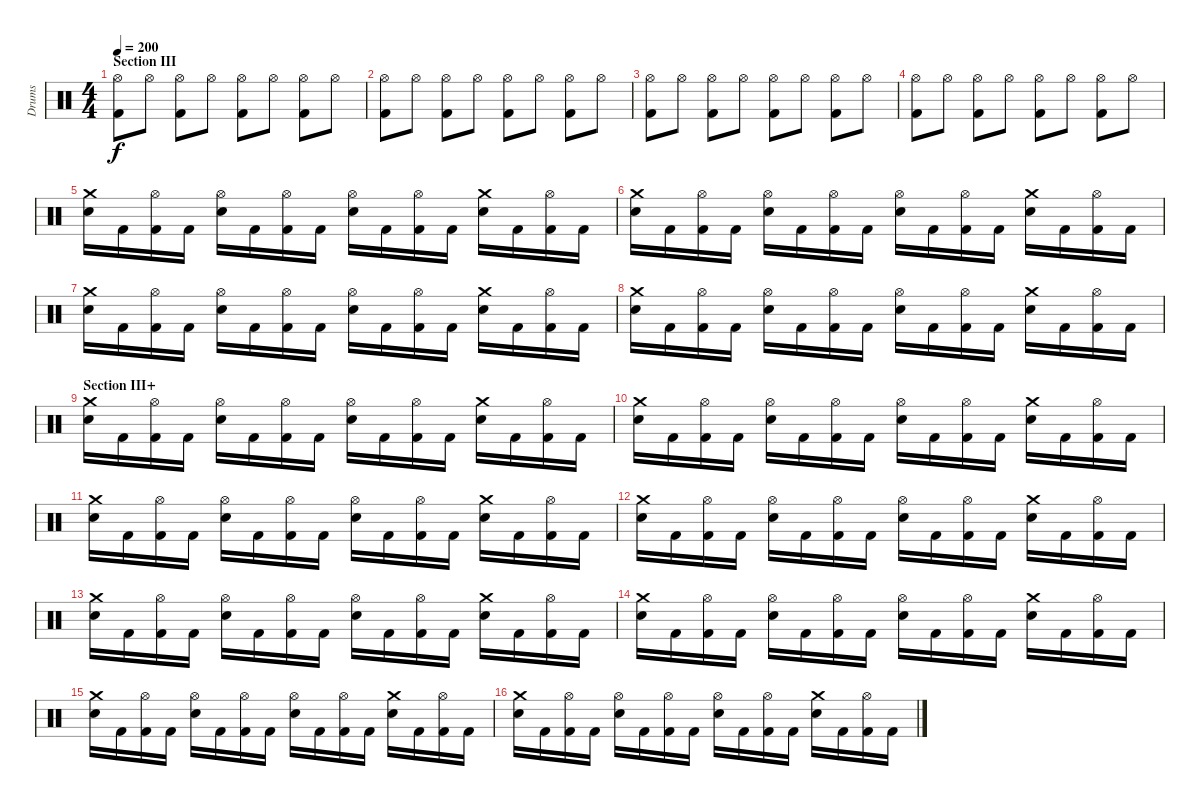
\track ("Drums" "Drums") {instrument percussion}
\staff {score}
\articulation defaults
\ts (4 4)
\section ("" "Section III")
\tempo 200
\clef neutral
\ks c
("Hi-Hat (open)" "Kick (hit) 2").8{dy f} "Hi-Hat (open)".8 ("Hi-Hat (open)" "Kick (hit) 2").8 "Hi-Hat (open)".8 ("Hi-Hat (open)" "Kick (hit) 2").8 "Hi-Hat (open)".8 ("Hi-Hat (open)" "Kick (hit) 2").8 "Hi-Hat (open)".8 |
("Hi-Hat (open)" "Kick (hit) 2").8 "Hi-Hat (open)".8 ("Hi-Hat (open)" "Kick (hit) 2").8 "Hi-Hat (open)".8 ("Hi-Hat (open)" "Kick (hit) 2").8 "Hi-Hat (open)".8 ("Hi-Hat (open)" "Kick (hit) 2").8 "Hi-Hat (open)".8 |
("Hi-Hat (open)" "Kick (hit) 2").8 "Hi-Hat (open)".8 ("Hi-Hat (open)" "Kick (hit) 2").8 "Hi-Hat (open)".8 ("Hi-Hat (open)" "Kick (hit) 2").8 "Hi-Hat (open)".8 ("Hi-Hat (open)" "Kick (hit) 2").8 "Hi-Hat (open)".8 |
("Hi-Hat (open)" "Kick (hit) 2").8 "Hi-Hat (open)".8 ("Hi-Hat (open)" "Kick (hit) 2").8 "Hi-Hat (open)".8 ("Hi-Hat (open)" "Kick (hit) 2").8 "Hi-Hat (open)".8 ("Hi-Hat (open)" "Kick (hit) 2").8 "Hi-Hat (open)".8 |
("Crash medium (hit)" "Snare (hit) 2").16 "Kick (hit) 2".16 ("Hi-Hat (open)" "Kick (hit) 2").16 "Kick (hit) 2".16 ("Hi-Hat (open)" "Snare (hit) 2").16 "Kick (hit) 2".16 ("Hi-Hat (open)" "Kick (hit) 2").16 "Kick (hit) 2".16 ("Hi-Hat (open)" "Snare (hit) 2").16 "Kick (hit) 2".16 ("Hi-Hat (open)" "Kick (hit) 2").16 "Kick (hit) 2".16 ("Crash medium (hit)" "Snare (hit) 2").16 "Kick (hit) 2".16 ("Hi-Hat (open)" "Kick (hit) 2").16 "Kick (hit) 2".16 |
("Crash medium (hit)" "Snare (hit) 2").16 "Kick (hit) 2".16 ("Hi-Hat (open)" "Kick (hit) 2").16 "Kick (hit) 2".16 ("Hi-Hat (open)" "Snare (hit) 2").16 "Kick (hit) 2".16 ("Hi-Hat (open)" "Kick (hit) 2").16 "Kick (hit) 2".16 ("Hi-Hat (open)" "Snare (hit) 2").16 "Kick (hit) 2".16 ("Hi-Hat (open)" "Kick (hit) 2").16 "Kick (hit) 2".16 ("Crash medium (hit)" "Snare (hit) 2").16 "Kick (hit) 2".16 ("Hi-Hat (open)" "Kick (hit) 2").16 "Kick (hit) 2".16 |
("Crash medium (hit)" "Snare (hit) 2").16 "Kick (hit) 2".16 ("Hi-Hat (open)" "Kick (hit) 2").16 "Kick (hit) 2".16 ("Hi-Hat (open)" "Snare (hit) 2").16 "Kick (hit) 2".16 ("Hi-Hat (open)" "Kick (hit) 2").16 "Kick (hit) 2".16 ("Hi-Hat (open)" "Snare (hit) 2").16 "Kick (hit) 2".16 ("Hi-Hat (open)" "Kick (hit) 2").16 "Kick (hit) 2".16 ("Crash medium (hit)" "Snare (hit) 2").16 "Kick (hit) 2".16 ("Hi-Hat (open)" "Kick (hit) 2").16 "Kick (hit) 2".16 |
("Crash medium (hit)" "Snare (hit) 2").16 "Kick (hit) 2".16 ("Hi-Hat (open)" "Kick (hit) 2").16 "Kick (hit) 2".16 ("Hi-Hat (open)" "Snare (hit) 2").16 "Kick (hit) 2".16 ("Hi-Hat (open)" "Kick (hit) 2").16 "Kick (hit) 2".16 ("Hi-Hat (open)" "Snare (hit) 2").16 "Kick (hit) 2".16 ("Hi-Hat (open)" "Kick (hit) 2").16 "Kick (hit) 2".16 ("Crash medium (hit)" "Snare (hit) 2").16 "Kick (hit) 2".16 ("Hi-Hat (open)" "Kick (hit) 2").16 "Kick (hit) 2".16 |
\section ("" "Section III+")
("Crash medium (hit)" "Snare (hit) 2").16 "Kick (hit) 2".16 ("Hi-Hat (open)" "Kick (hit) 2").16 "Kick (hit) 2".16 ("Hi-Hat (open)" "Snare (hit) 2").16 "Kick (hit) 2".16 ("Hi-Hat (open)" "Kick (hit) 2").16 "Kick (hit) 2".16 ("Hi-Hat (open)" "Snare (hit) 2").16 "Kick (hit) 2".16 ("Hi-Hat (open)" "Kick (hit) 2").16 "Kick (hit) 2".16 ("Crash medium (hit)" "Snare (hit) 2").16 "Kick (hit) 2".16 ("Hi-Hat (open)" "Kick (hit) 2").16 "Kick (hit) 2".16 |
("Crash medium (hit)" "Snare (hit) 2").16 "Kick (hit) 2".16 ("Hi-Hat (open)" "Kick (hit) 2").16 "Kick (hit) 2".16 ("Hi-Hat (open)" "Snare (hit) 2").16 "Kick (hit) 2".16 ("Hi-Hat (open)" "Kick (hit) 2").16 "Kick (hit) 2".16 ("Hi-Hat (open)" "Snare (hit) 2").16 "Kick (hit) 2".16 ("Hi-Hat (open)" "Kick (hit) 2").16 "Kick (hit) 2".16 ("Crash medium (hit)" "Snare (hit) 2").16 "Kick (hit) 2".16 ("Hi-Hat (open)" "Kick (hit) 2").16 "Kick (hit) 2".16 |
("Crash medium (hit)" "Snare (hit) 2").16 "Kick (hit) 2".16 ("Hi-Hat (open)" "Kick (hit) 2").16 "Kick (hit) 2".16 ("Hi-Hat (open)" "Snare (hit) 2").16 "Kick (hit) 2".16 ("Hi-Hat (open)" "Kick (hit) 2").16 "Kick (hit) 2".16 ("Hi-Hat (open)" "Snare (hit) 2").16 "Kick (hit) 2".16 ("Hi-Hat (open)" "Kick (hit) 2").16 "Kick (hit) 2".16 ("Crash medium (hit)" "Snare (hit) 2").16 "Kick (hit) 2".16 ("Hi-Hat (open)" "Kick (hit) 2").16 "Kick (hit) 2".16 |
("Crash medium (hit)" "Snare (hit) 2").16 "Kick (hit) 2".16 ("Hi-Hat (open)" "Kick (hit) 2").16 "Kick (hit) 2".16 ("Hi-Hat (open)" "Snare (hit) 2").16 "Kick (hit) 2".16 ("Hi-Hat (open)" "Kick (hit) 2").16 "Kick (hit) 2".16 ("Hi-Hat (open)" "Snare (hit) 2").16 "Kick (hit) 2".16 ("Hi-Hat (open)" "Kick (hit) 2").16 "Kick (hit) 2".16 ("Crash medium (hit)" "Snare (hit) 2").16 "Kick (hit) 2".16 ("Hi-Hat (open)" "Kick (hit) 2").16 "Kick (hit) 2".16 |
("Crash medium (hit)" "Snare (hit) 2").16 "Kick (hit) 2".16 ("Hi-Hat (open)" "Kick (hit) 2").16 "Kick (hit) 2".16 ("Hi-Hat (open)" "Snare (hit) 2").16 "Kick (hit) 2".16 ("Hi-Hat (open)" "Kick (hit) 2").16 "Kick (hit) 2".16 ("Hi-Hat (open)" "Snare (hit) 2").16 "Kick (hit) 2".16 ("Hi-Hat (open)" "Kick (hit) 2").16 "Kick (hit) 2".16 ("Crash medium (hit)" "Snare (hit) 2").16 "Kick (hit) 2".16 ("Hi-Hat (open)" "Kick (hit) 2").16 "Kick (hit) 2".16 |
("Crash medium (hit)" "Snare (hit) 2").16 "Kick (hit) 2".16 ("Hi-Hat (open)" "Kick (hit) 2").16 "Kick (hit) 2".16 ("Hi-Hat (open)" "Snare (hit) 2").16 "Kick (hit) 2".16 ("Hi-Hat (open)" "Kick (hit) 2").16 "Kick (hit) 2".16 ("Hi-Hat (open)" "Snare (hit) 2").16 "Kick (hit) 2".16 ("Hi-Hat (open)" "Kick (hit) 2").16 "Kick (hit) 2".16 ("Crash medium (hit)" "Snare (hit) 2").16 "Kick (hit) 2".16 ("Hi-Hat (open)" "Kick (hit) 2").16 "Kick (hit) 2".16 |
("Crash medium (hit)" "Snare (hit) 2").16 "Kick (hit) 2".16 ("Hi-Hat (open)" "Kick (hit) 2").16 "Kick (hit) 2".16 ("Hi-Hat (open)" "Snare (hit) 2").16 "Kick (hit) 2".16 ("Hi-Hat (open)" "Kick (hit) 2").16 "Kick (hit) 2".16 ("Hi-Hat (open)" "Snare (hit) 2").16 "Kick (hit) 2".16 ("Hi-Hat (open)" "Kick (hit) 2").16 "Kick (hit) 2".16 ("Crash medium (hit)" "Snare (hit) 2").16 "Kick (hit) 2".16 ("Hi-Hat (open)" "Kick (hit) 2").16 "Kick (hit) 2".16 |
("Crash medium (hit)" "Snare (hit) 2").16 "Kick (hit) 2".16 ("Hi-Hat (open)" "Kick (hit) 2").16 "Kick (hit) 2".16 ("Hi-Hat (open)" "Snare (hit) 2").16 "Kick (hit) 2".16 ("Hi-Hat (open)" "Kick (hit) 2").16 "Kick (hit) 2".16 ("Hi-Hat (open)" "Snare (hit) 2").16 "Kick (hit) 2".16 ("Hi-Hat (open)" "Kick (hit) 2").16 "Kick (hit) 2".16 ("Crash medium (hit)" "Snare (hit) 2").16 "Kick (hit) 2".16 ("Hi-Hat (open)" "Kick (hit) 2").16 "Kick (hit) 2".16
